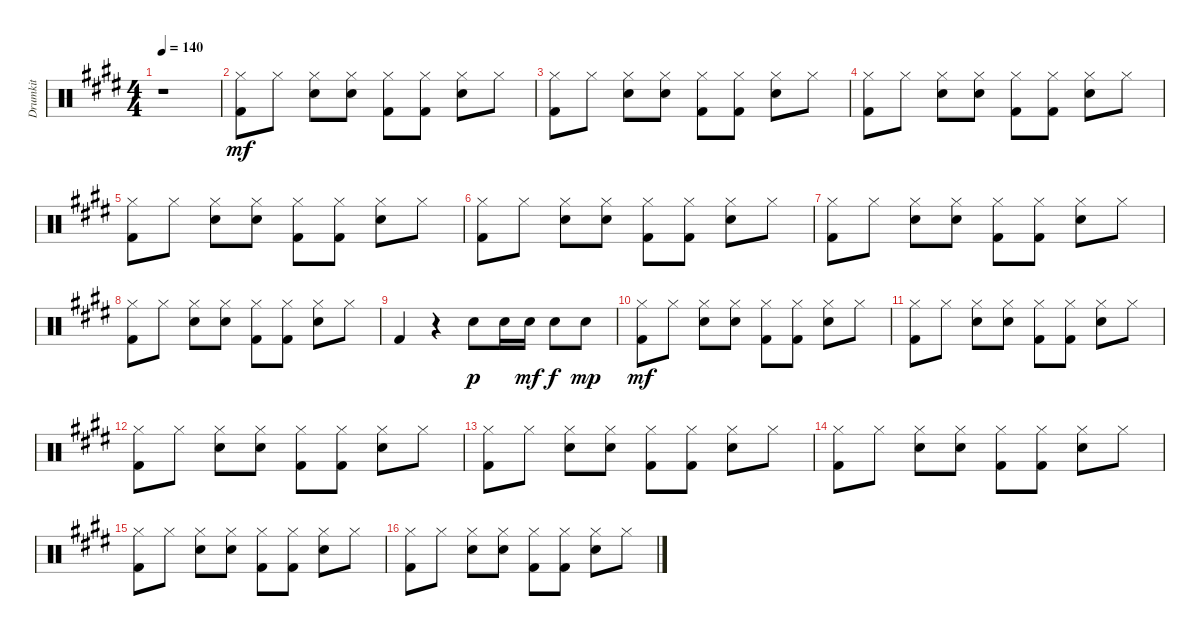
\track ("Drumkit" "Drumkit") {instrument percussion}
\staff {score}
\articulation defaults
\ts (4 4)
\tempo 140
\clef neutral
\ks e
r.1{dy mf} |
("Hi-Hat (closed)" "Kick (hit) 2").8 "Hi-Hat (closed)".8 ("Hi-Hat (closed)" "Snare (hit) 2").8 ("Hi-Hat (closed)" "Snare (hit) 2").8 ("Hi-Hat (closed)" "Kick (hit) 2").8 ("Hi-Hat (closed)" "Kick (hit) 2").8 ("Hi-Hat (closed)" "Snare (hit) 2").8 "Hi-Hat (closed)".8 |
("Hi-Hat (closed)" "Kick (hit) 2").8 "Hi-Hat (closed)".8 ("Hi-Hat (closed)" "Snare (hit) 2").8 ("Hi-Hat (closed)" "Snare (hit) 2").8 ("Hi-Hat (closed)" "Kick (hit) 2").8 ("Hi-Hat (closed)" "Kick (hit) 2").8 ("Hi-Hat (closed)" "Snare (hit) 2").8 "Hi-Hat (closed)".8 |
("Hi-Hat (closed)" "Kick (hit) 2").8 "Hi-Hat (closed)".8 ("Hi-Hat (closed)" "Snare (hit) 2").8 ("Hi-Hat (closed)" "Snare (hit) 2").8 ("Hi-Hat (closed)" "Kick (hit) 2").8 ("Hi-Hat (closed)" "Kick (hit) 2").8 ("Hi-Hat (closed)" "Snare (hit) 2").8 "Hi-Hat (closed)".8 |
("Hi-Hat (closed)" "Kick (hit) 2").8 "Hi-Hat (closed)".8 ("Hi-Hat (closed)" "Snare (hit) 2").8 ("Hi-Hat (closed)" "Snare (hit) 2").8 ("Hi-Hat (closed)" "Kick (hit) 2").8 ("Hi-Hat (closed)" "Kick (hit) 2").8 ("Hi-Hat (closed)" "Snare (hit) 2").8 "Hi-Hat (closed)".8 |
("Hi-Hat (closed)" "Kick (hit) 2").8 "Hi-Hat (closed)".8 ("Hi-Hat (closed)" "Snare (hit) 2").8 ("Hi-Hat (closed)" "Snare (hit) 2").8 ("Hi-Hat (closed)" "Kick (hit) 2").8 ("Hi-Hat (closed)" "Kick (hit) 2").8 ("Hi-Hat (closed)" "Snare (hit) 2").8 "Hi-Hat (closed)".8 |
("Hi-Hat (closed)" "Kick (hit) 2").8 "Hi-Hat (closed)".8 ("Hi-Hat (closed)" "Snare (hit) 2").8 ("Hi-Hat (closed)" "Snare (hit) 2").8 ("Hi-Hat (closed)" "Kick (hit) 2").8 ("Hi-Hat (closed)" "Kick (hit) 2").8 ("Hi-Hat (closed)" "Snare (hit) 2").8 "Hi-Hat (closed)".8 |
("Hi-Hat (closed)" "Kick (hit) 2").8 "Hi-Hat (closed)".8 ("Hi-Hat (closed)" "Snare (hit) 2").8 ("Hi-Hat (closed)" "Snare (hit) 2").8 ("Hi-Hat (closed)" "Kick (hit) 2").8 ("Hi-Hat (closed)" "Kick (hit) 2").8 ("Hi-Hat (closed)" "Snare (hit) 2").8 "Hi-Hat (closed)".8 |
"Kick (hit) 2".4 r.4 "Snare (hit) 2".8{dy p} "Snare (hit) 2".16 "Snare (hit) 2".16{dy mf} "Snare (hit) 2".8{dy f} "Snare (hit) 2".8{dy mp} |
("Hi-Hat (closed)" "Kick (hit) 2").8{dy mf} "Hi-Hat (closed)".8 ("Hi-Hat (closed)" "Snare (hit) 2").8 ("Hi-Hat (closed)" "Snare (hit) 2").8 ("Hi-Hat (closed)" "Kick (hit) 2").8 ("Hi-Hat (closed)" "Kick (hit) 2").8 ("Hi-Hat (closed)" "Snare (hit) 2").8 "Hi-Hat (closed)".8 |
("Hi-Hat (closed)" "Kick (hit) 2").8 "Hi-Hat (closed)".8 ("Hi-Hat (closed)" "Snare (hit) 2").8 ("Hi-Hat (closed)" "Snare (hit) 2").8 ("Hi-Hat (closed)" "Kick (hit) 2").8 ("Hi-Hat (closed)" "Kick (hit) 2").8 ("Hi-Hat (closed)" "Snare (hit) 2").8 "Hi-Hat (closed)".8 |
("Hi-Hat (closed)" "Kick (hit) 2").8 "Hi-Hat (closed)".8 ("Hi-Hat (closed)" "Snare (hit) 2").8 ("Hi-Hat (closed)" "Snare (hit) 2").8 ("Hi-Hat (closed)" "Kick (hit) 2").8 ("Hi-Hat (closed)" "Kick (hit) 2").8 ("Hi-Hat (closed)" "Snare (hit) 2").8 "Hi-Hat (closed)".8 |
("Hi-Hat (closed)" "Kick (hit) 2").8 "Hi-Hat (closed)".8 ("Hi-Hat (closed)" "Snare (hit) 2").8 ("Hi-Hat (closed)" "Snare (hit) 2").8 ("Hi-Hat (closed)" "Kick (hit) 2").8 ("Hi-Hat (closed)" "Kick (hit) 2").8 ("Hi-Hat (closed)" "Snare (hit) 2").8 "Hi-Hat (closed)".8 |
("Hi-Hat (closed)" "Kick (hit) 2").8 "Hi-Hat (closed)".8 ("Hi-Hat (closed)" "Snare (hit) 2").8 ("Hi-Hat (closed)" "Snare (hit) 2").8 ("Hi-Hat (closed)" "Kick (hit) 2").8 ("Hi-Hat (closed)" "Kick (hit) 2").8 ("Hi-Hat (closed)" "Snare (hit) 2").8 "Hi-Hat (closed)".8 |
("Hi-Hat (closed)" "Kick (hit) 2").8 "Hi-Hat (closed)".8 ("Hi-Hat (closed)" "Snare (hit) 2").8 ("Hi-Hat (closed)" "Snare (hit) 2").8 ("Hi-Hat (closed)" "Kick (hit) 2").8 ("Hi-Hat (closed)" "Kick (hit) 2").8 ("Hi-Hat (closed)" "Snare (hit) 2").8 "Hi-Hat (closed)".8 |
("Hi-Hat (closed)" "Kick (hit) 2").8 "Hi-Hat (closed)".8 ("Hi-Hat (closed)" "Snare (hit) 2").8 ("Hi-Hat (closed)" "Snare (hit) 2").8 ("Hi-Hat (closed)" "Kick (hit) 2").8 ("Hi-Hat (closed)" "Kick (hit) 2").8 ("Hi-Hat (closed)" "Snare (hit) 2").8 "Hi-Hat (closed)".8
